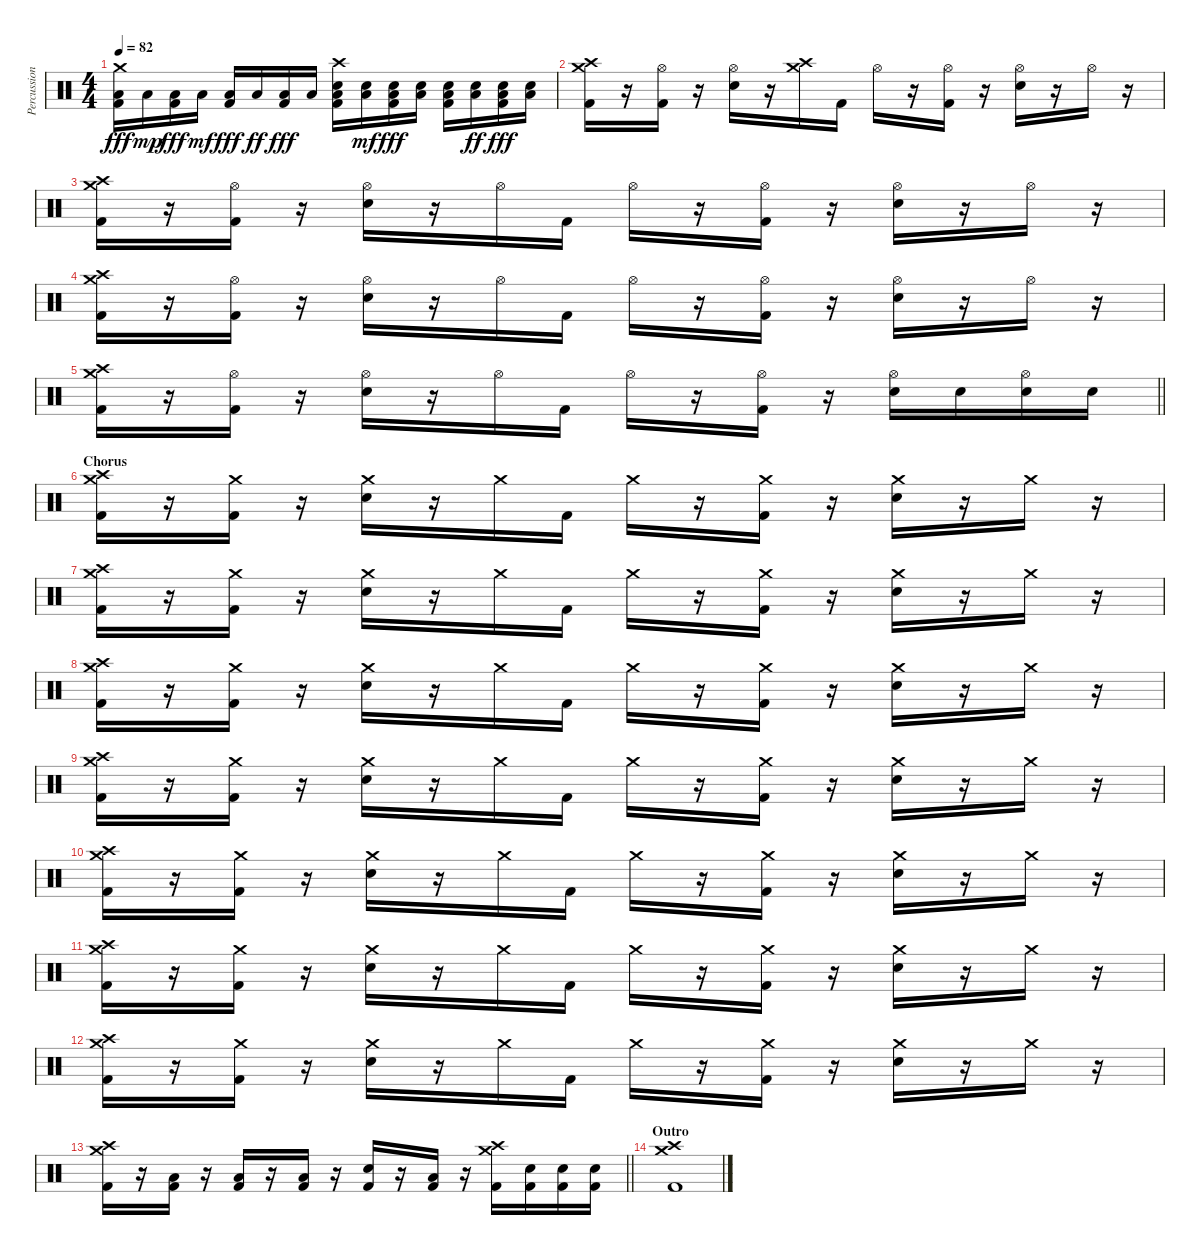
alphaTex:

\track ("Percussion" "Percussion") {instrument percussion}
\staff {score}
\articulation defaults
\ts (4 4)
\tempo 82
\clef neutral
\ks c
("Crash medium (hit)" "Low Floor Tom (hit)" "Kick (hit) 2").16{dy fff} "Low Floor Tom (hit)".16{dy mp} ("Low Floor Tom (hit)" "Kick (hit) 2").16{dy fff} "Low Floor Tom (hit)".16{dy mf} ("Low Floor Tom (hit)" "Kick (hit) 2").16{dy fff} "Low Floor Tom (hit)".16{dy ff} ("Low Floor Tom (hit)" "Kick (hit) 2").16{dy fff} "Low Floor Tom (hit)".16 ("Crash high (hit)" "Low Floor Tom (hit)" "Snare (hit) 2" "Kick (hit) 2").16 ("Low Floor Tom (hit)" "Snare (hit) 2").16{dy mf} ("Low Floor Tom (hit)" "Snare (hit) 2" "Kick (hit) 2").16{dy fff} ("Low Floor Tom (hit)" "Snare (hit) 2").16 ("Low Floor Tom (hit)" "Snare (hit) 2" "Kick (hit) 2").16 ("Low Floor Tom (hit)" "Snare (hit) 2").16{dy ff} ("Low Floor Tom (hit)" "Snare (hit) 2" "Kick (hit) 2").16{dy fff} ("Low Floor Tom (hit)" "Snare (hit) 2").16 |
("Crash high (hit)" "Crash medium (hit)" "Kick (hit) 2").16 r.16 ("Hi-Hat (open)" "Kick (hit) 2").16 r.16 ("Hi-Hat (open)" "Snare (hit) 2").16 r.16 ("Crash medium (hit)" "Crash high (hit)").16 "Kick (hit) 2".16 "Hi-Hat (open)".16 r.16 ("Hi-Hat (open)" "Kick (hit) 2").16 r.16 ("Hi-Hat (open)" "Snare (hit) 2").16 r.16 "Hi-Hat (open)".16 r.16 |
("Crash high (hit)" "Crash medium (hit)" "Kick (hit) 2").16 r.16 ("Hi-Hat (open)" "Kick (hit) 2").16 r.16 ("Hi-Hat (open)" "Snare (hit) 2").16 r.16 "Hi-Hat (open)".16 "Kick (hit) 2".16 "Hi-Hat (open)".16 r.16 ("Hi-Hat (open)" "Kick (hit) 2").16 r.16 ("Hi-Hat (open)" "Snare (hit) 2").16 r.16 "Hi-Hat (open)".16 r.16 |
("Crash high (hit)" "Crash medium (hit)" "Kick (hit) 2").16 r.16 ("Hi-Hat (open)" "Kick (hit) 2").16 r.16 ("Hi-Hat (open)" "Snare (hit) 2").16 r.16 "Hi-Hat (open)".16 "Kick (hit) 2".16 "Hi-Hat (open)".16 r.16 ("Hi-Hat (open)" "Kick (hit) 2").16 r.16 ("Hi-Hat (open)" "Snare (hit) 2").16 r.16 "Hi-Hat (open)".16 r.16 |
\barLineRight lightlight
("Crash high (hit)" "Crash medium (hit)" "Kick (hit) 2").16 r.16 ("Hi-Hat (open)" "Kick (hit) 2").16 r.16 ("Hi-Hat (open)" "Snare (hit) 2").16 r.16 "Hi-Hat (open)".16 "Kick (hit) 2".16 "Hi-Hat (open)".16 r.16 ("Hi-Hat (open)" "Kick (hit) 2").16 r.16 ("Hi-Hat (open)" "Snare (hit) 2").16 "Snare (hit) 2".16 ("Hi-Hat (open)" "Snare (hit) 2").16 "Snare (hit) 2".16 |
\section ("" "Chorus")
("Crash high (hit)" "Crash medium (hit)" "Kick (hit) 2").16 r.16 ("Crash medium (hit)" "Kick (hit) 2").16 r.16 ("Crash medium (hit)" "Snare (hit) 2").16 r.16 "Crash medium (hit)".16 "Kick (hit) 2".16 "Crash medium (hit)".16 r.16 ("Crash medium (hit)" "Kick (hit) 2").16 r.16 ("Crash medium (hit)" "Snare (hit) 2").16 r.16 "Crash medium (hit)".16 r.16 |
("Crash high (hit)" "Crash medium (hit)" "Kick (hit) 2").16 r.16 ("Crash medium (hit)" "Kick (hit) 2").16 r.16 ("Crash medium (hit)" "Snare (hit) 2").16 r.16 "Crash medium (hit)".16 "Kick (hit) 2".16 "Crash medium (hit)".16 r.16 ("Crash medium (hit)" "Kick (hit) 2").16 r.16 ("Crash medium (hit)" "Snare (hit) 2").16 r.16 "Crash medium (hit)".16 r.16 |
("Crash high (hit)" "Crash medium (hit)" "Kick (hit) 2").16 r.16 ("Crash medium (hit)" "Kick (hit) 2").16 r.16 ("Crash medium (hit)" "Snare (hit) 2").16 r.16 "Crash medium (hit)".16 "Kick (hit) 2".16 "Crash medium (hit)".16 r.16 ("Crash medium (hit)" "Kick (hit) 2").16 r.16 ("Crash medium (hit)" "Snare (hit) 2").16 r.16 "Crash medium (hit)".16 r.16 |
("Crash high (hit)" "Crash medium (hit)" "Kick (hit) 2").16 r.16 ("Crash medium (hit)" "Kick (hit) 2").16 r.16 ("Crash medium (hit)" "Snare (hit) 2").16 r.16 "Crash medium (hit)".16 "Kick (hit) 2".16 "Crash medium (hit)".16 r.16 ("Crash medium (hit)" "Kick (hit) 2").16 r.16 ("Crash medium (hit)" "Snare (hit) 2").16 r.16 "Crash medium (hit)".16 r.16 |
("Crash high (hit)" "Crash medium (hit)" "Kick (hit) 2").16 r.16 ("Crash medium (hit)" "Kick (hit) 2").16 r.16 ("Crash medium (hit)" "Snare (hit) 2").16 r.16 "Crash medium (hit)".16 "Kick (hit) 2".16 "Crash medium (hit)".16 r.16 ("Crash medium (hit)" "Kick (hit) 2").16 r.16 ("Crash medium (hit)" "Snare (hit) 2").16 r.16 "Crash medium (hit)".16 r.16 |
("Crash high (hit)" "Crash medium (hit)" "Kick (hit) 2").16 r.16 ("Crash medium (hit)" "Kick (hit) 2").16 r.16 ("Crash medium (hit)" "Snare (hit) 2").16 r.16 "Crash medium (hit)".16 "Kick (hit) 2".16 "Crash medium (hit)".16 r.16 ("Crash medium (hit)" "Kick (hit) 2").16 r.16 ("Crash medium (hit)" "Snare (hit) 2").16 r.16 "Crash medium (hit)".16 r.16 |
("Crash high (hit)" "Crash medium (hit)" "Kick (hit) 2").16 r.16 ("Crash medium (hit)" "Kick (hit) 2").16 r.16 ("Crash medium (hit)" "Snare (hit) 2").16 r.16 "Crash medium (hit)".16 "Kick (hit) 2".16 "Crash medium (hit)".16 r.16 ("Crash medium (hit)" "Kick (hit) 2").16 r.16 ("Crash medium (hit)" "Snare (hit) 2").16 r.16 "Crash medium (hit)".16 r.16 |
\barLineRight lightlight
("Crash high (hit)" "Crash medium (hit)" "Kick (hit) 2").16 r.16 ("Low Floor Tom (hit)" "Kick (hit) 2").16 r.16 ("Low Floor Tom (hit)" "Kick (hit) 2").16 r.16 ("Low Floor Tom (hit)" "Kick (hit) 2").16 r.16 ("Snare (hit)" "Kick (hit) 2").16 r.16 ("Low Floor Tom (hit)" "Kick (hit) 2").16 r.16 ("Crash high (hit)" "Crash medium (hit)" "Kick (hit) 2").16 ("Snare (hit) 2" "Kick (hit) 2").16 ("Snare (hit) 2" "Kick (hit) 2").16 ("Snare (hit) 2" "Kick (hit) 2").16 |
\section ("" "Outro")
("Crash high (hit)" "Crash medium (hit)" "Kick (hit) 2").1
